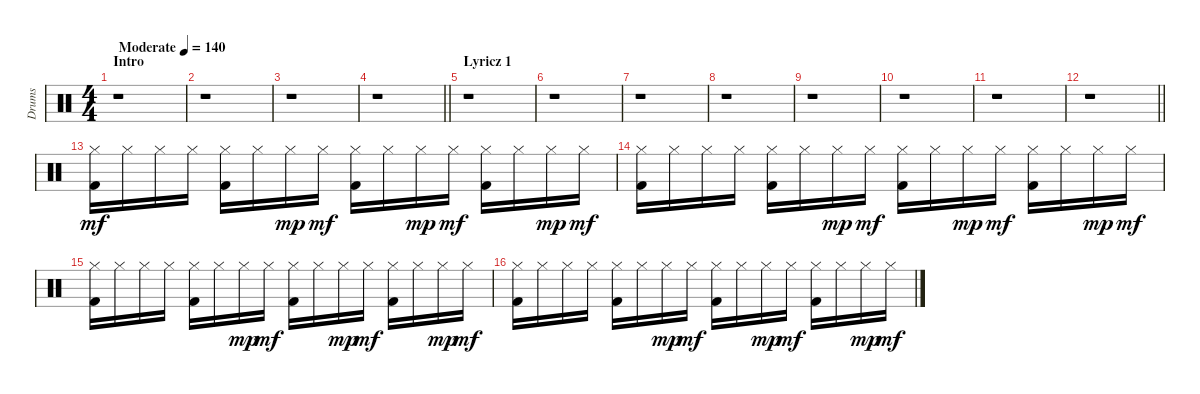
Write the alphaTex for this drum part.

\track ("Drums" "Drums") {instrument percussion}
\staff {score}
\articulation defaults
\ts (4 4)
\section ("" "Intro")
\tempo (140 "Moderate")
\clef neutral
\ks c
r.1{dy mf} |
r.1 |
r.1 |
\barLineRight lightlight
r.1 |
\section ("" "Lyricz 1")
r.1 |
r.1 |
r.1 |
r.1 |
r.1 |
r.1 |
r.1 |
\barLineRight lightlight
r.1 |
("Hi-Hat (closed)" "Kick (hit) 2").16 "Hi-Hat (closed)".16 "Hi-Hat (closed)".16 "Hi-Hat (closed)".16 ("Hi-Hat (closed)" "Kick (hit) 2").16 "Hi-Hat (closed)".16 "Hi-Hat (closed)".16{dy mp} "Hi-Hat (closed)".16{dy mf} ("Hi-Hat (closed)" "Kick (hit) 2").16 "Hi-Hat (closed)".16 "Hi-Hat (closed)".16{dy mp} "Hi-Hat (closed)".16{dy mf} ("Hi-Hat (closed)" "Kick (hit) 2").16 "Hi-Hat (closed)".16 "Hi-Hat (closed)".16{dy mp} "Hi-Hat (closed)".16{dy mf} |
("Hi-Hat (closed)" "Kick (hit) 2").16 "Hi-Hat (closed)".16 "Hi-Hat (closed)".16 "Hi-Hat (closed)".16 ("Hi-Hat (closed)" "Kick (hit) 2").16 "Hi-Hat (closed)".16 "Hi-Hat (closed)".16{dy mp} "Hi-Hat (closed)".16{dy mf} ("Hi-Hat (closed)" "Kick (hit) 2").16 "Hi-Hat (closed)".16 "Hi-Hat (closed)".16{dy mp} "Hi-Hat (closed)".16{dy mf} ("Hi-Hat (closed)" "Kick (hit) 2").16 "Hi-Hat (closed)".16 "Hi-Hat (closed)".16{dy mp} "Hi-Hat (closed)".16{dy mf} |
("Hi-Hat (closed)" "Kick (hit) 2").16 "Hi-Hat (closed)".16 "Hi-Hat (closed)".16 "Hi-Hat (closed)".16 ("Hi-Hat (closed)" "Kick (hit) 2").16 "Hi-Hat (closed)".16 "Hi-Hat (closed)".16{dy mp} "Hi-Hat (closed)".16{dy mf} ("Hi-Hat (closed)" "Kick (hit) 2").16 "Hi-Hat (closed)".16 "Hi-Hat (closed)".16{dy mp} "Hi-Hat (closed)".16{dy mf} ("Hi-Hat (closed)" "Kick (hit) 2").16 "Hi-Hat (closed)".16 "Hi-Hat (closed)".16{dy mp} "Hi-Hat (closed)".16{dy mf} |
("Hi-Hat (closed)" "Kick (hit) 2").16 "Hi-Hat (closed)".16 "Hi-Hat (closed)".16 "Hi-Hat (closed)".16 ("Hi-Hat (closed)" "Kick (hit) 2").16 "Hi-Hat (closed)".16 "Hi-Hat (closed)".16{dy mp} "Hi-Hat (closed)".16{dy mf} ("Hi-Hat (closed)" "Kick (hit) 2").16 "Hi-Hat (closed)".16 "Hi-Hat (closed)".16{dy mp} "Hi-Hat (closed)".16{dy mf} ("Hi-Hat (closed)" "Kick (hit) 2").16 "Hi-Hat (closed)".16 "Hi-Hat (closed)".16{dy mp} "Hi-Hat (closed)".16{dy mf}
